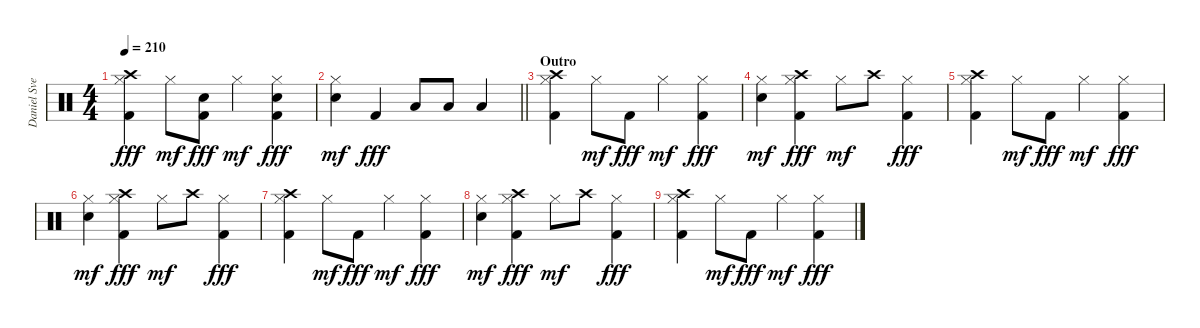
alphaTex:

\track ("Daniel Svensson" "Daniel Sve") {instrument percussion}
\staff {score}
\articulation defaults
\ts (4 4)
\tempo 210
\clef neutral
\ks c
("Crash high (hit)" "Hi-Hat (closed)" "Kick (hit) 2").4{dy fff} "Hi-Hat (closed)".8{dy mf} ("Electric Snare (hit)" "Kick (hit) 2").8{dy fff} "Hi-Hat (closed)".4{dy mf} ("Hi-Hat (closed)" "Electric Snare (hit)" "Kick (hit) 2").4{dy fff} |
\barLineRight lightlight
("Hi-Hat (closed)" "Electric Snare (hit)").4{dy mf} "Kick (hit) 2".4{dy fff} "Low Floor Tom (hit)".8 "Low Floor Tom (hit)".8 "Low Floor Tom (hit)".4 |
\section ("" "Outro")
("Crash high (hit)" "Hi-Hat (closed)" "Kick (hit) 2").4 "Hi-Hat (closed)".8{dy mf} "Kick (hit) 2".8{dy fff} "Hi-Hat (closed)".4{dy mf} ("Hi-Hat (closed)" "Kick (hit) 2").4{dy fff} |
("Hi-Hat (closed)" "Electric Snare (hit)").4{dy mf} ("Crash high (hit)" "Hi-Hat (closed)" "Kick (hit) 2").4{dy fff} "Hi-Hat (closed)".8{dy mf} "Crash high (hit)".8 ("Hi-Hat (closed)" "Kick (hit) 2").4{dy fff} |
("Crash high (hit)" "Hi-Hat (closed)" "Kick (hit) 2").4 "Hi-Hat (closed)".8{dy mf} "Kick (hit) 2".8{dy fff} "Hi-Hat (closed)".4{dy mf} ("Hi-Hat (closed)" "Kick (hit) 2").4{dy fff} |
("Hi-Hat (closed)" "Electric Snare (hit)").4{dy mf} ("Crash high (hit)" "Hi-Hat (closed)" "Kick (hit) 2").4{dy fff} "Hi-Hat (closed)".8{dy mf} "Crash high (hit)".8 ("Hi-Hat (closed)" "Kick (hit) 2").4{dy fff} |
("Crash high (hit)" "Hi-Hat (closed)" "Kick (hit) 2").4 "Hi-Hat (closed)".8{dy mf} "Kick (hit) 2".8{dy fff} "Hi-Hat (closed)".4{dy mf} ("Hi-Hat (closed)" "Kick (hit) 2").4{dy fff} |
("Hi-Hat (closed)" "Electric Snare (hit)").4{dy mf} ("Crash high (hit)" "Hi-Hat (closed)" "Kick (hit) 2").4{dy fff} "Hi-Hat (closed)".8{dy mf} "Crash high (hit)".8 ("Hi-Hat (closed)" "Kick (hit) 2").4{dy fff} |
("Crash high (hit)" "Hi-Hat (closed)" "Kick (hit) 2").4 "Hi-Hat (closed)".8{dy mf} "Kick (hit) 2".8{dy fff} "Hi-Hat (closed)".4{dy mf} ("Hi-Hat (closed)" "Kick (hit) 2").4{dy fff}
